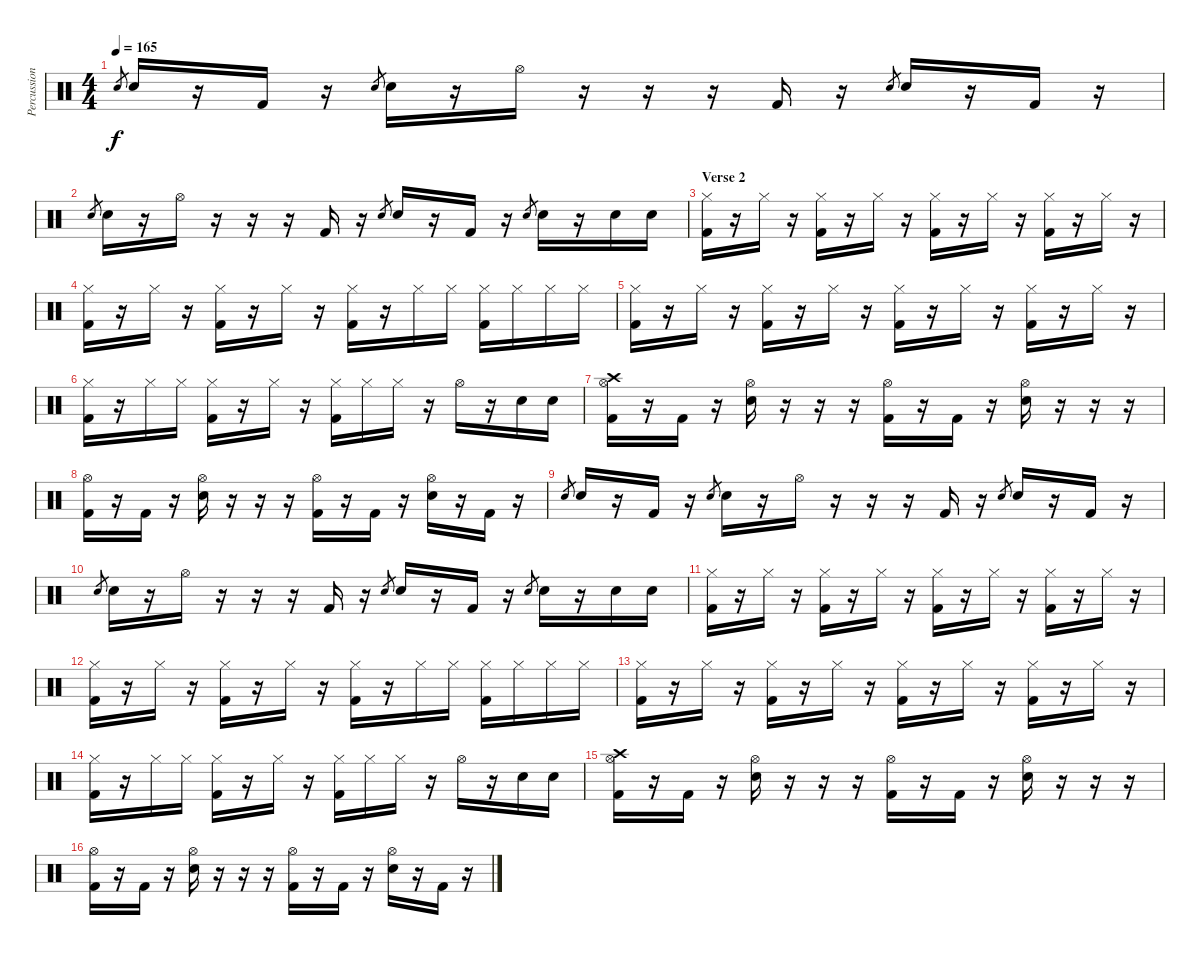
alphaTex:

\track ("Percussion" "Percussion") {instrument percussion}
\staff {score}
\articulation defaults
\ts (4 4)
\tempo 165
\clef neutral
\ks c "Snare (hit) 2".8{gr dy f} "Snare (hit) 2".16
r.16 "Kick (hit) 2".16 r.16 "Snare (hit) 2".8{gr} "Snare (hit) 2".16 r.16 "Hi-Hat (open)".16 r.16 r.16 r.16 "Kick (hit) 2".16 r.16 "Snare (hit) 2".8{gr} "Snare (hit) 2".16 r.16 "Kick (hit) 2".16 r.16 |
"Snare (hit) 2".8{gr} "Snare (hit) 2".16 r.16 "Hi-Hat (open)".16 r.16 r.16 r.16 "Kick (hit) 2".16 r.16 "Snare (hit) 2".8{gr} "Snare (hit) 2".16 r.16 "Kick (hit) 2".16 r.16 "Snare (hit) 2".8{gr} "Snare (hit) 2".16 r.16 "Snare (hit) 2".16 "Snare (hit) 2".16 |
\section ("" "Verse 2")
("Hi-Hat (closed)" "Kick (hit) 2").16 r.16 "Hi-Hat (closed)".16 r.16 ("Hi-Hat (closed)" "Kick (hit) 2").16 r.16 "Hi-Hat (closed)".16 r.16 ("Hi-Hat (closed)" "Kick (hit) 2").16 r.16 "Hi-Hat (closed)".16 r.16 ("Hi-Hat (closed)" "Kick (hit) 2").16 r.16 "Hi-Hat (closed)".16 r.16 |
("Hi-Hat (closed)" "Kick (hit) 2").16 r.16 "Hi-Hat (closed)".16 r.16 ("Hi-Hat (closed)" "Kick (hit) 2").16 r.16 "Hi-Hat (closed)".16 r.16 ("Hi-Hat (closed)" "Kick (hit) 2").16 r.16 "Hi-Hat (closed)".16 "Hi-Hat (closed)".16 ("Hi-Hat (closed)" "Kick (hit) 2").16 "Hi-Hat (closed)".16 "Hi-Hat (closed)".16 "Hi-Hat (closed)".16 |
("Hi-Hat (closed)" "Kick (hit) 2").16 r.16 "Hi-Hat (closed)".16 r.16 ("Hi-Hat (closed)" "Kick (hit) 2").16 r.16 "Hi-Hat (closed)".16 r.16 ("Hi-Hat (closed)" "Kick (hit) 2").16 r.16 "Hi-Hat (closed)".16 r.16 ("Hi-Hat (closed)" "Kick (hit) 2").16 r.16 "Hi-Hat (closed)".16 r.16 |
("Hi-Hat (closed)" "Kick (hit) 2").16 r.16 "Hi-Hat (closed)".16 "Hi-Hat (closed)".16 ("Hi-Hat (closed)" "Kick (hit) 2").16 r.16 "Hi-Hat (closed)".16 r.16 ("Hi-Hat (closed)" "Kick (hit) 2").16 "Hi-Hat (closed)".16 "Hi-Hat (closed)".16 r.16 "Hi-Hat (open)".16 r.16 "Snare (hit) 2".16 "Snare (hit) 2".16 |
("Crash high (hit)" "Hi-Hat (open)" "Kick (hit) 2").16 r.16 "Kick (hit) 2".16 r.16 ("Hi-Hat (open)" "Snare (hit) 2").16 r.16 r.16 r.16 ("Hi-Hat (open)" "Kick (hit) 2").16 r.16 "Kick (hit) 2".16 r.16 ("Hi-Hat (open)" "Snare (hit) 2").16 r.16 r.16 r.16 |
("Hi-Hat (open)" "Kick (hit) 2").16 r.16 "Kick (hit) 2".16 r.16 ("Hi-Hat (open)" "Snare (hit) 2").16 r.16 r.16 r.16 ("Hi-Hat (open)" "Kick (hit) 2").16 r.16 "Kick (hit) 2".16 r.16 ("Hi-Hat (open)" "Snare (hit) 2").16 r.16 "Kick (hit) 2".16 r.16 |
"Snare (hit) 2".8{gr} "Snare (hit) 2".16 r.16 "Kick (hit) 2".16 r.16 "Snare (hit) 2".8{gr} "Snare (hit) 2".16 r.16 "Hi-Hat (open)".16 r.16 r.16 r.16 "Kick (hit) 2".16 r.16 "Snare (hit) 2".8{gr} "Snare (hit) 2".16 r.16 "Kick (hit) 2".16 r.16 |
"Snare (hit) 2".8{gr} "Snare (hit) 2".16 r.16 "Hi-Hat (open)".16 r.16 r.16 r.16 "Kick (hit) 2".16 r.16 "Snare (hit) 2".8{gr} "Snare (hit) 2".16 r.16 "Kick (hit) 2".16 r.16 "Snare (hit) 2".8{gr} "Snare (hit) 2".16 r.16 "Snare (hit) 2".16 "Snare (hit) 2".16 |
("Hi-Hat (closed)" "Kick (hit) 2").16 r.16 "Hi-Hat (closed)".16 r.16 ("Hi-Hat (closed)" "Kick (hit) 2").16 r.16 "Hi-Hat (closed)".16 r.16 ("Hi-Hat (closed)" "Kick (hit) 2").16 r.16 "Hi-Hat (closed)".16 r.16 ("Hi-Hat (closed)" "Kick (hit) 2").16 r.16 "Hi-Hat (closed)".16 r.16 |
("Hi-Hat (closed)" "Kick (hit) 2").16 r.16 "Hi-Hat (closed)".16 r.16 ("Hi-Hat (closed)" "Kick (hit) 2").16 r.16 "Hi-Hat (closed)".16 r.16 ("Hi-Hat (closed)" "Kick (hit) 2").16 r.16 "Hi-Hat (closed)".16 "Hi-Hat (closed)".16 ("Hi-Hat (closed)" "Kick (hit) 2").16 "Hi-Hat (closed)".16 "Hi-Hat (closed)".16 "Hi-Hat (closed)".16 |
("Hi-Hat (closed)" "Kick (hit) 2").16 r.16 "Hi-Hat (closed)".16 r.16 ("Hi-Hat (closed)" "Kick (hit) 2").16 r.16 "Hi-Hat (closed)".16 r.16 ("Hi-Hat (closed)" "Kick (hit) 2").16 r.16 "Hi-Hat (closed)".16 r.16 ("Hi-Hat (closed)" "Kick (hit) 2").16 r.16 "Hi-Hat (closed)".16 r.16 |
("Hi-Hat (closed)" "Kick (hit) 2").16 r.16 "Hi-Hat (closed)".16 "Hi-Hat (closed)".16 ("Hi-Hat (closed)" "Kick (hit) 2").16 r.16 "Hi-Hat (closed)".16 r.16 ("Hi-Hat (closed)" "Kick (hit) 2").16 "Hi-Hat (closed)".16 "Hi-Hat (closed)".16 r.16 "Hi-Hat (open)".16 r.16 "Snare (hit) 2".16 "Snare (hit) 2".16 |
("Crash high (hit)" "Hi-Hat (open)" "Kick (hit) 2").16 r.16 "Kick (hit) 2".16 r.16 ("Hi-Hat (open)" "Snare (hit) 2").16 r.16 r.16 r.16 ("Hi-Hat (open)" "Kick (hit) 2").16 r.16 "Kick (hit) 2".16 r.16 ("Hi-Hat (open)" "Snare (hit) 2").16 r.16 r.16 r.16 |
("Hi-Hat (open)" "Kick (hit) 2").16 r.16 "Kick (hit) 2".16 r.16 ("Hi-Hat (open)" "Snare (hit) 2").16 r.16 r.16 r.16 ("Hi-Hat (open)" "Kick (hit) 2").16 r.16 "Kick (hit) 2".16 r.16 ("Hi-Hat (open)" "Snare (hit) 2").16 r.16 "Kick (hit) 2".16 r.16
